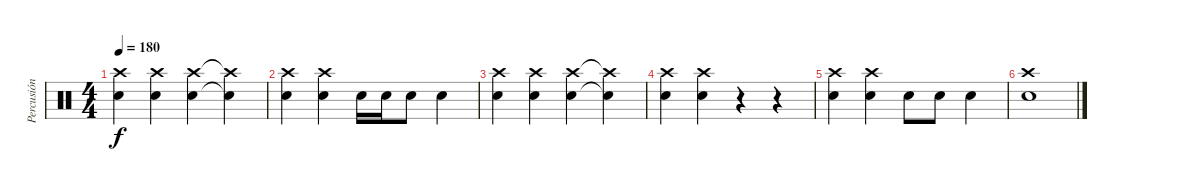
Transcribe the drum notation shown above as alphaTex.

\track ("Percusión" "Percusión") {instrument percussion}
\staff {score}
\articulation defaults
\ts (4 4)
\tempo 180
\clef neutral
\ks c
("Crash high (hit)" "Electric Snare (hit)").4{dy f} ("Crash high (hit)" "Electric Snare (hit)").4 ("Crash high (hit)" "Electric Snare (hit)").4 ("Crash high (hit)"{t} "Electric Snare (hit)"{t}).4 |
("Crash high (hit)" "Electric Snare (hit)").4 ("Crash high (hit)" "Electric Snare (hit)").4 "Electric Snare (hit)".16 "Electric Snare (hit)".16 "Electric Snare (hit)".8 "Electric Snare (hit)".4 |
("Crash high (hit)" "Electric Snare (hit)").4 ("Crash high (hit)" "Electric Snare (hit)").4 ("Crash high (hit)" "Electric Snare (hit)").4 ("Crash high (hit)"{t} "Electric Snare (hit)"{t}).4 |
("Crash high (hit)" "Electric Snare (hit)").4 ("Crash high (hit)" "Electric Snare (hit)").4 r.4 r.4 |
("Crash high (hit)" "Electric Snare (hit)").4 ("Crash high (hit)" "Electric Snare (hit)").4 "Electric Snare (hit)".8 "Electric Snare (hit)".8 "Electric Snare (hit)".4 |
("Crash high (hit)" "Electric Snare (hit)").1
